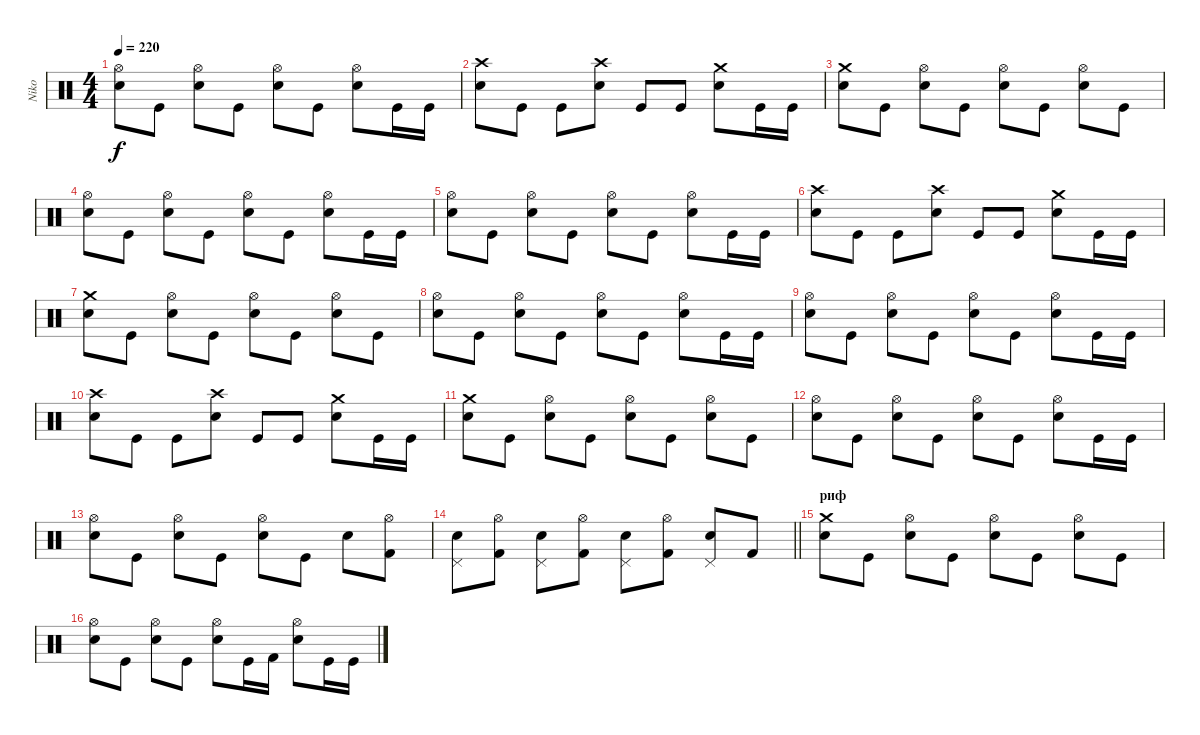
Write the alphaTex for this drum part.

\track ("Niko" "Niko") {instrument percussion}
\staff {score}
\articulation defaults
\ts (4 4)
\tempo 220
\clef neutral
\ks c
("Hi-Hat (open)" "Snare (hit) 2").8{dy f} "Kick (hit)".8 ("Hi-Hat (open)" "Snare (hit) 2").8 "Kick (hit)".8 ("Hi-Hat (open)" "Snare (hit) 2").8 "Kick (hit)".8 ("Hi-Hat (open)" "Snare (hit) 2").8 "Kick (hit)".16 "Kick (hit)".16 |
("Crash high (hit)" "Snare (hit) 2").8 "Kick (hit)".8 "Kick (hit)".8 ("Crash high (hit)" "Snare (hit) 2").8 "Kick (hit)".8 "Kick (hit)".8 ("Crash medium (hit)" "Snare (hit) 2").8 "Kick (hit)".16 "Kick (hit)".16 |
("Crash medium (hit)" "Snare (hit) 2").8 "Kick (hit)".8 ("Hi-Hat (open)" "Snare (hit) 2").8 "Kick (hit)".8 ("Hi-Hat (open)" "Snare (hit) 2").8 "Kick (hit)".8 ("Hi-Hat (open)" "Snare (hit) 2").8 "Kick (hit)".8 |
("Hi-Hat (open)" "Snare (hit) 2").8 "Kick (hit)".8 ("Hi-Hat (open)" "Snare (hit) 2").8 "Kick (hit)".8 ("Hi-Hat (open)" "Snare (hit) 2").8 "Kick (hit)".8 ("Hi-Hat (open)" "Snare (hit) 2").8 "Kick (hit)".16 "Kick (hit)".16 |
("Hi-Hat (open)" "Snare (hit) 2").8 "Kick (hit)".8 ("Hi-Hat (open)" "Snare (hit) 2").8 "Kick (hit)".8 ("Hi-Hat (open)" "Snare (hit) 2").8 "Kick (hit)".8 ("Hi-Hat (open)" "Snare (hit) 2").8 "Kick (hit)".16 "Kick (hit)".16 |
("Crash high (hit)" "Snare (hit) 2").8 "Kick (hit)".8 "Kick (hit)".8 ("Crash high (hit)" "Snare (hit) 2").8 "Kick (hit)".8 "Kick (hit)".8 ("Crash medium (hit)" "Snare (hit) 2").8 "Kick (hit)".16 "Kick (hit)".16 |
("Crash medium (hit)" "Snare (hit) 2").8 "Kick (hit)".8 ("Hi-Hat (open)" "Snare (hit) 2").8 "Kick (hit)".8 ("Hi-Hat (open)" "Snare (hit) 2").8 "Kick (hit)".8 ("Hi-Hat (open)" "Snare (hit) 2").8 "Kick (hit)".8 |
("Hi-Hat (open)" "Snare (hit) 2").8 "Kick (hit)".8 ("Hi-Hat (open)" "Snare (hit) 2").8 "Kick (hit)".8 ("Hi-Hat (open)" "Snare (hit) 2").8 "Kick (hit)".8 ("Hi-Hat (open)" "Snare (hit) 2").8 "Kick (hit)".16 "Kick (hit)".16 |
("Hi-Hat (open)" "Snare (hit) 2").8 "Kick (hit)".8 ("Hi-Hat (open)" "Snare (hit) 2").8 "Kick (hit)".8 ("Hi-Hat (open)" "Snare (hit) 2").8 "Kick (hit)".8 ("Hi-Hat (open)" "Snare (hit) 2").8 "Kick (hit)".16 "Kick (hit)".16 |
("Crash high (hit)" "Snare (hit) 2").8 "Kick (hit)".8 "Kick (hit)".8 ("Crash high (hit)" "Snare (hit) 2").8 "Kick (hit)".8 "Kick (hit)".8 ("Crash medium (hit)" "Snare (hit) 2").8 "Kick (hit)".16 "Kick (hit)".16 |
("Crash medium (hit)" "Snare (hit) 2").8 "Kick (hit)".8 ("Hi-Hat (open)" "Snare (hit) 2").8 "Kick (hit)".8 ("Hi-Hat (open)" "Snare (hit) 2").8 "Kick (hit)".8 ("Hi-Hat (open)" "Snare (hit) 2").8 "Kick (hit)".8 |
("Hi-Hat (open)" "Snare (hit) 2").8 "Kick (hit)".8 ("Hi-Hat (open)" "Snare (hit) 2").8 "Kick (hit)".8 ("Hi-Hat (open)" "Snare (hit) 2").8 "Kick (hit)".8 ("Hi-Hat (open)" "Snare (hit) 2").8 "Kick (hit)".16 "Kick (hit)".16 |
("Hi-Hat (open)" "Snare (hit) 2").8 "Kick (hit)".8 ("Hi-Hat (open)" "Snare (hit) 2").8 "Kick (hit)".8 ("Hi-Hat (open)" "Snare (hit) 2").8 "Kick (hit)".8 "Snare (hit) 2".8 ("Hi-Hat (open)" "Kick (hit) 2").8 |
\barLineRight lightlight
("Snare (hit) 2" "Pedal Hi-Hat (hit)").8 ("Hi-Hat (open)" "Kick (hit) 2").8 ("Snare (hit) 2" "Pedal Hi-Hat (hit)").8 ("Hi-Hat (open)" "Kick (hit) 2").8 ("Snare (hit) 2" "Pedal Hi-Hat (hit)").8 ("Hi-Hat (open)" "Kick (hit) 2").8 ("Snare (hit) 2" "Pedal Hi-Hat (hit)").8 "Kick (hit) 2".8 |
\section ("" "риф")
("Crash medium (hit)" "Snare (hit) 2").8 "Kick (hit)".8 ("Hi-Hat (open)" "Snare (hit) 2").8 "Kick (hit)".8 ("Hi-Hat (open)" "Snare (hit) 2").8 "Kick (hit)".8 ("Hi-Hat (open)" "Snare (hit) 2").8 "Kick (hit)".8 |
("Hi-Hat (open)" "Snare (hit) 2").8 "Kick (hit)".8 ("Hi-Hat (open)" "Snare (hit) 2").8 "Kick (hit)".8 ("Hi-Hat (open)" "Snare (hit) 2").8 "Kick (hit)".16 "Kick (hit) 2".16 ("Hi-Hat (open)" "Snare (hit) 2").8 "Kick (hit)".16 "Kick (hit)".16
